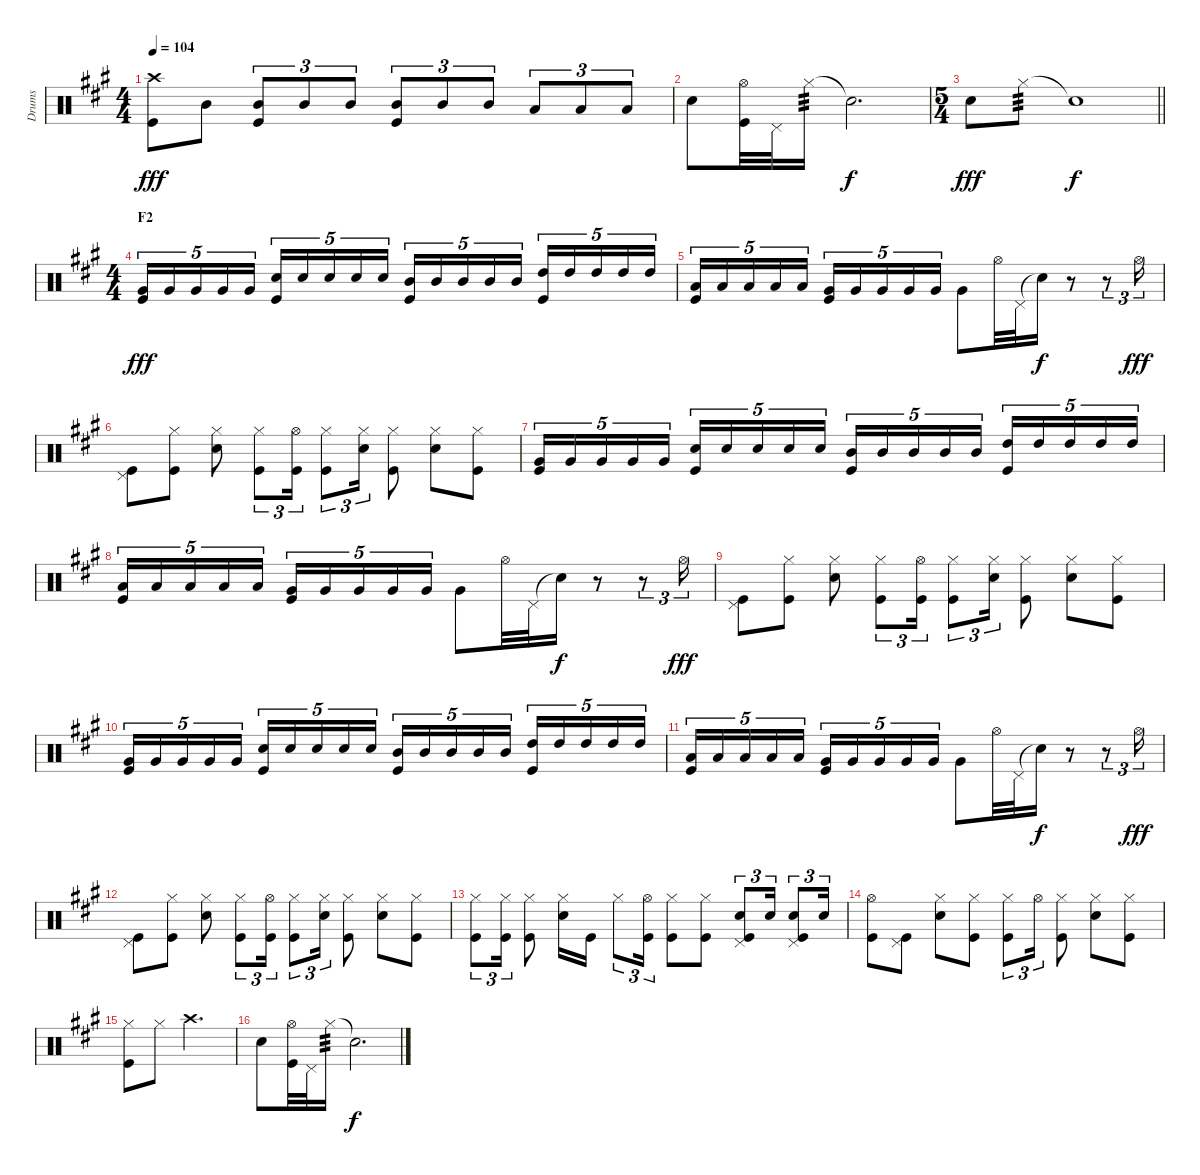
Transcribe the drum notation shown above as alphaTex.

\track ("Drums" "Drums") {instrument percussion}
\staff {score}
\articulation defaults
\ts (4 4)
\tempo 104
\clef neutral
\ks a
("Crash high (hit)" "Kick (hit)").8{dy fff} "Mid Tom (hit)".8 ("Mid Tom (hit)" "Kick (hit)").8{tu (3 2)} "Mid Tom (hit)".8{tu (3 2)} "Mid Tom (hit)".8{tu (3 2)} ("Mid Tom (hit)" "Kick (hit)").8{tu (3 2)} "Mid Tom (hit)".8{tu (3 2)} "Mid Tom (hit)".8{tu (3 2)} "Low Tom (hit)".8{tu (3 2)} "Low Tom (hit)".8{tu (3 2)} "Low Tom (hit)".8{tu (3 2)} |
"Snare (hit) 2".8 ("Hi-Hat (open)" "Kick (hit)").32 "Pedal Hi-Hat (hit)".32 "Hi-Hat (closed)".16{tp 3} "Snare (hit)"{t}.2{d dy f} |
\ts (5 4)
\barLineRight lightlight "Snare (hit) 2".8{dy fff} "Hi-Hat (closed)".8{tp 3} "Snare (hit)"{t}.1{dy f}
|
\ts (4 4)
\section ("" "F2")
("Very Low Tom (hit)" "Kick (hit)").16{tu (5 4) dy fff} "Very Low Tom (hit)".16{tu (5 4)} "Very Low Tom (hit)".16{tu (5 4)} "Very Low Tom (hit)".16{tu (5 4)} "Very Low Tom (hit)".16{tu (5 4)} ("Snare (hit) 2" "Kick (hit)").16{tu (5 4)} "Snare (hit) 2".16{tu (5 4)} "Snare (hit) 2".16{tu (5 4)} "Snare (hit) 2".16{tu (5 4)} "Snare (hit) 2".16{tu (5 4)} ("Mid Tom (hit)" "Kick (hit)").16{tu (5 4)} "Mid Tom (hit)".16{tu (5 4)} "Mid Tom (hit)".16{tu (5 4)} "Mid Tom (hit)".16{tu (5 4)} "Mid Tom (hit)".16{tu (5 4)} ("High Tom (hit)" "Kick (hit)").16{tu (5 4)} "High Tom (hit)".16{tu (5 4)} "High Tom (hit)".16{tu (5 4)} "High Tom (hit)".16{tu (5 4)} "High Tom (hit)".16{tu (5 4)} |
("Low Tom (hit)" "Kick (hit)").16{tu (5 4)} "Low Tom (hit)".16{tu (5 4)} "Low Tom (hit)".16{tu (5 4)} "Low Tom (hit)".16{tu (5 4)} "Low Tom (hit)".16{tu (5 4)} ("Very Low Tom (hit)" "Kick (hit)").16{tu (5 4)} "Very Low Tom (hit)".16{tu (5 4)} "Very Low Tom (hit)".16{tu (5 4)} "Very Low Tom (hit)".16{tu (5 4)} "Very Low Tom (hit)".16{tu (5 4)} "Very Low Tom (hit)".8 "Hi-Hat (open)".32 "Pedal Hi-Hat (hit)".32 "Snare (hit)"{t}.16{dy f} r.8 r.8{tu (3 2)} "Hi-Hat (open)".16{tu (3 2) dy fff} |
("Pedal Hi-Hat (hit)" "Kick (hit)").8 ("Hi-Hat (closed)" "Kick (hit)").8 ("Hi-Hat (closed)" "Snare (hit) 2").8 ("Hi-Hat (closed)" "Kick (hit)").8{tu (3 2)} ("Hi-Hat (open)" "Kick (hit)").16{tu (3 2)} ("Hi-Hat (closed)" "Kick (hit)").8{tu (3 2)} ("Hi-Hat (closed)" "Snare (hit) 2").16{tu (3 2)} ("Hi-Hat (closed)" "Kick (hit)").8 ("Hi-Hat (closed)" "Snare (hit) 2").8 ("Hi-Hat (closed)" "Kick (hit)").8 |
("Very Low Tom (hit)" "Kick (hit)").16{tu (5 4)} "Very Low Tom (hit)".16{tu (5 4)} "Very Low Tom (hit)".16{tu (5 4)} "Very Low Tom (hit)".16{tu (5 4)} "Very Low Tom (hit)".16{tu (5 4)} ("Snare (hit) 2" "Kick (hit)").16{tu (5 4)} "Snare (hit) 2".16{tu (5 4)} "Snare (hit) 2".16{tu (5 4)} "Snare (hit) 2".16{tu (5 4)} "Snare (hit) 2".16{tu (5 4)} ("Mid Tom (hit)" "Kick (hit)").16{tu (5 4)} "Mid Tom (hit)".16{tu (5 4)} "Mid Tom (hit)".16{tu (5 4)} "Mid Tom (hit)".16{tu (5 4)} "Mid Tom (hit)".16{tu (5 4)} ("High Tom (hit)" "Kick (hit)").16{tu (5 4)} "High Tom (hit)".16{tu (5 4)} "High Tom (hit)".16{tu (5 4)} "High Tom (hit)".16{tu (5 4)} "High Tom (hit)".16{tu (5 4)} |
("Low Tom (hit)" "Kick (hit)").16{tu (5 4)} "Low Tom (hit)".16{tu (5 4)} "Low Tom (hit)".16{tu (5 4)} "Low Tom (hit)".16{tu (5 4)} "Low Tom (hit)".16{tu (5 4)} ("Very Low Tom (hit)" "Kick (hit)").16{tu (5 4)} "Very Low Tom (hit)".16{tu (5 4)} "Very Low Tom (hit)".16{tu (5 4)} "Very Low Tom (hit)".16{tu (5 4)} "Very Low Tom (hit)".16{tu (5 4)} "Very Low Tom (hit)".8 "Hi-Hat (open)".32 "Pedal Hi-Hat (hit)".32 "Snare (hit)"{t}.16{dy f} r.8 r.8{tu (3 2)} "Hi-Hat (open)".16{tu (3 2) dy fff} |
("Pedal Hi-Hat (hit)" "Kick (hit)").8 ("Hi-Hat (closed)" "Kick (hit)").8 ("Hi-Hat (closed)" "Snare (hit) 2").8 ("Hi-Hat (closed)" "Kick (hit)").8{tu (3 2)} ("Hi-Hat (open)" "Kick (hit)").16{tu (3 2)} ("Hi-Hat (closed)" "Kick (hit)").8{tu (3 2)} ("Hi-Hat (closed)" "Snare (hit) 2").16{tu (3 2)} ("Hi-Hat (closed)" "Kick (hit)").8 ("Hi-Hat (closed)" "Snare (hit) 2").8 ("Hi-Hat (closed)" "Kick (hit)").8 |
("Very Low Tom (hit)" "Kick (hit)").16{tu (5 4)} "Very Low Tom (hit)".16{tu (5 4)} "Very Low Tom (hit)".16{tu (5 4)} "Very Low Tom (hit)".16{tu (5 4)} "Very Low Tom (hit)".16{tu (5 4)} ("Snare (hit) 2" "Kick (hit)").16{tu (5 4)} "Snare (hit) 2".16{tu (5 4)} "Snare (hit) 2".16{tu (5 4)} "Snare (hit) 2".16{tu (5 4)} "Snare (hit) 2".16{tu (5 4)} ("Mid Tom (hit)" "Kick (hit)").16{tu (5 4)} "Mid Tom (hit)".16{tu (5 4)} "Mid Tom (hit)".16{tu (5 4)} "Mid Tom (hit)".16{tu (5 4)} "Mid Tom (hit)".16{tu (5 4)} ("High Tom (hit)" "Kick (hit)").16{tu (5 4)} "High Tom (hit)".16{tu (5 4)} "High Tom (hit)".16{tu (5 4)} "High Tom (hit)".16{tu (5 4)} "High Tom (hit)".16{tu (5 4)} |
("Low Tom (hit)" "Kick (hit)").16{tu (5 4)} "Low Tom (hit)".16{tu (5 4)} "Low Tom (hit)".16{tu (5 4)} "Low Tom (hit)".16{tu (5 4)} "Low Tom (hit)".16{tu (5 4)} ("Very Low Tom (hit)" "Kick (hit)").16{tu (5 4)} "Very Low Tom (hit)".16{tu (5 4)} "Very Low Tom (hit)".16{tu (5 4)} "Very Low Tom (hit)".16{tu (5 4)} "Very Low Tom (hit)".16{tu (5 4)} "Very Low Tom (hit)".8 "Hi-Hat (open)".32 "Pedal Hi-Hat (hit)".32 "Snare (hit)"{t}.16{dy f} r.8 r.8{tu (3 2)} "Hi-Hat (open)".16{tu (3 2) dy fff} |
("Pedal Hi-Hat (hit)" "Kick (hit)").8 ("Hi-Hat (closed)" "Kick (hit)").8 ("Hi-Hat (closed)" "Snare (hit) 2").8 ("Hi-Hat (closed)" "Kick (hit)").8{tu (3 2)} ("Hi-Hat (open)" "Kick (hit)").16{tu (3 2)} ("Hi-Hat (closed)" "Kick (hit)").8{tu (3 2)} ("Hi-Hat (closed)" "Snare (hit) 2").16{tu (3 2)} ("Hi-Hat (closed)" "Kick (hit)").8 ("Hi-Hat (closed)" "Snare (hit) 2").8 ("Hi-Hat (closed)" "Kick (hit)").8 |
("Hi-Hat (closed)" "Kick (hit)").8{tu (3 2)} ("Hi-Hat (closed)" "Kick (hit)").16{tu (3 2)} ("Hi-Hat (closed)" "Kick (hit)").8 ("Hi-Hat (closed)" "Snare (hit) 2").16 "Kick (hit)".16 "Hi-Hat (closed)".8{tu (3 2)} ("Hi-Hat (open)" "Kick (hit)").16{tu (3 2)} ("Hi-Hat (closed)" "Kick (hit)").8 ("Hi-Hat (closed)" "Kick (hit)").8 ("Pedal Hi-Hat (hit)" "Snare (hit) 2" "Kick (hit)").8{tu (3 2)} "Snare (hit) 2".16{tu (3 2)} ("Pedal Hi-Hat (hit)" "Snare (hit) 2" "Kick (hit)").8{tu (3 2)} "Snare (hit) 2".16{tu (3 2)} |
("Hi-Hat (open)" "Kick (hit)").8 ("Pedal Hi-Hat (hit)" "Kick (hit)").8 ("Hi-Hat (closed)" "Snare (hit) 2").8 ("Hi-Hat (closed)" "Kick (hit)").8 ("Hi-Hat (closed)" "Kick (hit)").8{tu (3 2)} "Hi-Hat (open)".16{tu (3 2)} ("Hi-Hat (closed)" "Kick (hit)").8 ("Hi-Hat (closed)" "Snare (hit) 2").8 ("Hi-Hat (closed)" "Kick (hit)").8 |
("Hi-Hat (closed)" "Kick (hit)").8 "Hi-Hat (closed)".8 "Crash high (hit)".2{d} |
"Snare (hit) 2".8 ("Hi-Hat (open)" "Kick (hit)").32 "Pedal Hi-Hat (hit)".32 "Hi-Hat (closed)".16{tp 3} "Snare (hit)"{t}.2{d dy f}
